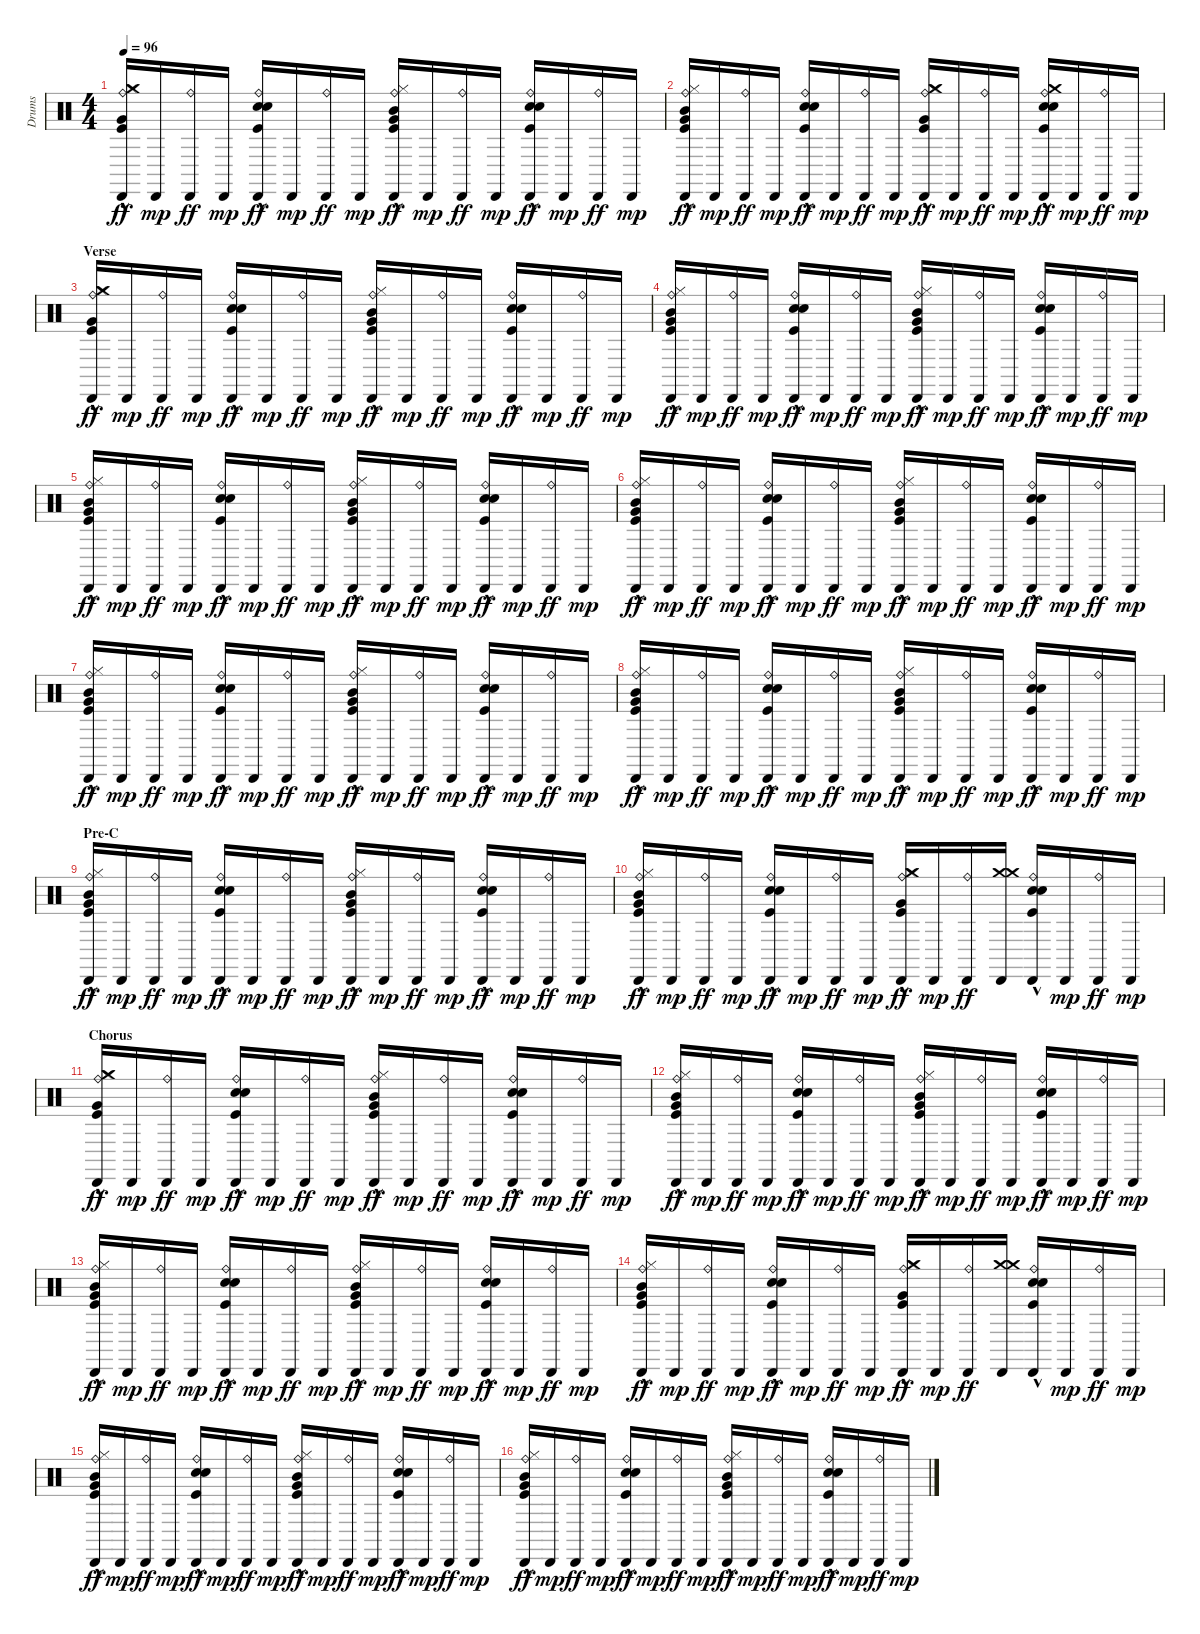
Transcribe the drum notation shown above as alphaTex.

\track ("Drums" "Drums") {instrument percussion}
\staff {score}
\articulation defaults
\ts (4 4)
\tempo 96
\clef neutral
\ks c
("Crash medium (hit)"{hac} "Kick (hit)"{hac} "Hi-Hat (closed)"{hac} "Very Low Tom (hit)"{hac} "Cabasa (hit)" "Ride (bell)").16{dy ff} "Cabasa (hit)".16{dy mp} ("Cabasa (hit)" "Ride (bell)").16{dy ff} "Cabasa (hit)".16{dy mp} ("Kick (hit)"{hac} "Snare (hit) 2"{hac} "Electric Snare (hit)"{hac} "Cabasa (hit)" "Ride (bell)").16{dy ff} "Cabasa (hit)".16{dy mp} ("Cabasa (hit)" "Ride (bell)").16{dy ff} "Cabasa (hit)".16{dy mp} ("Kick (hit)"{hac} "Hi-Hat (closed)"{hac} "Very Low Tom (hit)"{hac} "Cabasa (hit)" "Ride (bell)" "Mid Tom (hit)"{hac}).16{dy ff} "Cabasa (hit)".16{dy mp} ("Cabasa (hit)" "Ride (bell)").16{dy ff} "Cabasa (hit)".16{dy mp} ("Kick (hit)"{hac} "Snare (hit) 2"{hac} "Electric Snare (hit)"{hac} "Cabasa (hit)" "Ride (bell)").16{dy ff} "Cabasa (hit)".16{dy mp} ("Cabasa (hit)" "Ride (bell)").16{dy ff} "Cabasa (hit)".16{dy mp} |
("Kick (hit)"{hac} "Hi-Hat (closed)"{hac} "Very Low Tom (hit)"{hac} "Cabasa (hit)" "Ride (bell)" "Mid Tom (hit)").16{dy ff} "Cabasa (hit)".16{dy mp} ("Cabasa (hit)" "Ride (bell)").16{dy ff} "Cabasa (hit)".16{dy mp} ("Kick (hit)"{hac} "Snare (hit) 2"{hac} "Electric Snare (hit)"{hac} "Cabasa (hit)" "Ride (bell)").16{dy ff} "Cabasa (hit)".16{dy mp} ("Cabasa (hit)" "Ride (bell)").16{dy ff} "Cabasa (hit)".16{dy mp} ("Crash medium (hit)"{hac} "Kick (hit)"{hac} "Hi-Hat (closed)"{hac} "Very Low Tom (hit)"{hac} "Cabasa (hit)" "Ride (bell)").16{dy ff} "Cabasa (hit)".16{dy mp} ("Cabasa (hit)" "Ride (bell)").16{dy ff} "Cabasa (hit)".16{dy mp} ("Crash medium (hit)"{hac} "Kick (hit)"{hac} "Snare (hit) 2"{hac} "Electric Snare (hit)"{hac} "Cabasa (hit)" "Ride (bell)").16{dy ff} "Cabasa (hit)".16{dy mp} ("Cabasa (hit)" "Ride (bell)").16{dy ff} "Cabasa (hit)".16{dy mp} |
\section ("" "Verse")
("Crash medium (hit)"{hac} "Kick (hit)"{hac} "Hi-Hat (closed)"{hac} "Very Low Tom (hit)"{hac} "Cabasa (hit)" "Ride (bell)").16{dy ff} "Cabasa (hit)".16{dy mp} ("Cabasa (hit)" "Ride (bell)").16{dy ff} "Cabasa (hit)".16{dy mp} ("Kick (hit)"{hac} "Snare (hit) 2"{hac} "Electric Snare (hit)"{hac} "Cabasa (hit)" "Ride (bell)").16{dy ff} "Cabasa (hit)".16{dy mp} ("Cabasa (hit)" "Ride (bell)").16{dy ff} "Cabasa (hit)".16{dy mp} ("Kick (hit)"{hac} "Hi-Hat (closed)"{hac} "Very Low Tom (hit)"{hac} "Cabasa (hit)" "Ride (bell)" "Mid Tom (hit)"{hac}).16{dy ff} "Cabasa (hit)".16{dy mp} ("Cabasa (hit)" "Ride (bell)").16{dy ff} "Cabasa (hit)".16{dy mp} ("Kick (hit)"{hac} "Snare (hit) 2"{hac} "Electric Snare (hit)"{hac} "Cabasa (hit)" "Ride (bell)").16{dy ff} "Cabasa (hit)".16{dy mp} ("Cabasa (hit)" "Ride (bell)").16{dy ff} "Cabasa (hit)".16{dy mp} |
("Kick (hit)"{hac} "Hi-Hat (closed)"{hac} "Very Low Tom (hit)"{hac} "Cabasa (hit)" "Ride (bell)" "Mid Tom (hit)"{hac}).16{dy ff} "Cabasa (hit)".16{dy mp} ("Cabasa (hit)" "Ride (bell)").16{dy ff} "Cabasa (hit)".16{dy mp} ("Kick (hit)"{hac} "Snare (hit) 2"{hac} "Electric Snare (hit)"{hac} "Cabasa (hit)" "Ride (bell)").16{dy ff} "Cabasa (hit)".16{dy mp} ("Cabasa (hit)" "Ride (bell)").16{dy ff} "Cabasa (hit)".16{dy mp} ("Kick (hit)"{hac} "Hi-Hat (closed)"{hac} "Very Low Tom (hit)"{hac} "Cabasa (hit)" "Ride (bell)" "Mid Tom (hit)"{hac}).16{dy ff} "Cabasa (hit)".16{dy mp} ("Cabasa (hit)" "Ride (bell)").16{dy ff} "Cabasa (hit)".16{dy mp} ("Kick (hit)"{hac} "Snare (hit) 2"{hac} "Electric Snare (hit)"{hac} "Cabasa (hit)" "Ride (bell)").16{dy ff} "Cabasa (hit)".16{dy mp} ("Cabasa (hit)" "Ride (bell)").16{dy ff} "Cabasa (hit)".16{dy mp} |
("Kick (hit)"{hac} "Hi-Hat (closed)"{hac} "Very Low Tom (hit)"{hac} "Cabasa (hit)" "Ride (bell)" "Mid Tom (hit)"{hac}).16{dy ff} "Cabasa (hit)".16{dy mp} ("Cabasa (hit)" "Ride (bell)").16{dy ff} "Cabasa (hit)".16{dy mp} ("Kick (hit)"{hac} "Snare (hit) 2"{hac} "Electric Snare (hit)"{hac} "Cabasa (hit)" "Ride (bell)").16{dy ff} "Cabasa (hit)".16{dy mp} ("Cabasa (hit)" "Ride (bell)").16{dy ff} "Cabasa (hit)".16{dy mp} ("Kick (hit)"{hac} "Hi-Hat (closed)"{hac} "Very Low Tom (hit)"{hac} "Cabasa (hit)" "Ride (bell)" "Mid Tom (hit)"{hac}).16{dy ff} "Cabasa (hit)".16{dy mp} ("Cabasa (hit)" "Ride (bell)").16{dy ff} "Cabasa (hit)".16{dy mp} ("Kick (hit)"{hac} "Snare (hit) 2"{hac} "Electric Snare (hit)"{hac} "Cabasa (hit)" "Ride (bell)").16{dy ff} "Cabasa (hit)".16{dy mp} ("Cabasa (hit)" "Ride (bell)").16{dy ff} "Cabasa (hit)".16{dy mp} |
("Kick (hit)"{hac} "Hi-Hat (closed)"{hac} "Very Low Tom (hit)"{hac} "Cabasa (hit)" "Ride (bell)" "Mid Tom (hit)"{hac}).16{dy ff} "Cabasa (hit)".16{dy mp} ("Cabasa (hit)" "Ride (bell)").16{dy ff} "Cabasa (hit)".16{dy mp} ("Kick (hit)"{hac} "Snare (hit) 2"{hac} "Electric Snare (hit)"{hac} "Cabasa (hit)" "Ride (bell)").16{dy ff} "Cabasa (hit)".16{dy mp} ("Cabasa (hit)" "Ride (bell)").16{dy ff} "Cabasa (hit)".16{dy mp} ("Kick (hit)"{hac} "Hi-Hat (closed)"{hac} "Very Low Tom (hit)"{hac} "Cabasa (hit)" "Ride (bell)" "Mid Tom (hit)"{hac}).16{dy ff} "Cabasa (hit)".16{dy mp} ("Cabasa (hit)" "Ride (bell)").16{dy ff} "Cabasa (hit)".16{dy mp} ("Kick (hit)"{hac} "Snare (hit) 2"{hac} "Electric Snare (hit)"{hac} "Cabasa (hit)" "Ride (bell)").16{dy ff} "Cabasa (hit)".16{dy mp} ("Cabasa (hit)" "Ride (bell)").16{dy ff} "Cabasa (hit)".16{dy mp} |
("Kick (hit)"{hac} "Hi-Hat (closed)"{hac} "Very Low Tom (hit)"{hac} "Cabasa (hit)" "Ride (bell)" "Mid Tom (hit)"{hac}).16{dy ff} "Cabasa (hit)".16{dy mp} ("Cabasa (hit)" "Ride (bell)").16{dy ff} "Cabasa (hit)".16{dy mp} ("Kick (hit)"{hac} "Snare (hit) 2"{hac} "Electric Snare (hit)"{hac} "Cabasa (hit)" "Ride (bell)").16{dy ff} "Cabasa (hit)".16{dy mp} ("Cabasa (hit)" "Ride (bell)").16{dy ff} "Cabasa (hit)".16{dy mp} ("Kick (hit)"{hac} "Hi-Hat (closed)"{hac} "Very Low Tom (hit)"{hac} "Cabasa (hit)" "Ride (bell)" "Mid Tom (hit)"{hac}).16{dy ff} "Cabasa (hit)".16{dy mp} ("Cabasa (hit)" "Ride (bell)").16{dy ff} "Cabasa (hit)".16{dy mp} ("Kick (hit)"{hac} "Snare (hit) 2"{hac} "Electric Snare (hit)"{hac} "Cabasa (hit)" "Ride (bell)").16{dy ff} "Cabasa (hit)".16{dy mp} ("Cabasa (hit)" "Ride (bell)").16{dy ff} "Cabasa (hit)".16{dy mp} |
("Kick (hit)"{hac} "Hi-Hat (closed)"{hac} "Very Low Tom (hit)"{hac} "Cabasa (hit)" "Ride (bell)" "Mid Tom (hit)"{hac}).16{dy ff} "Cabasa (hit)".16{dy mp} ("Cabasa (hit)" "Ride (bell)").16{dy ff} "Cabasa (hit)".16{dy mp} ("Kick (hit)"{hac} "Snare (hit) 2"{hac} "Electric Snare (hit)"{hac} "Cabasa (hit)" "Ride (bell)").16{dy ff} "Cabasa (hit)".16{dy mp} ("Cabasa (hit)" "Ride (bell)").16{dy ff} "Cabasa (hit)".16{dy mp} ("Kick (hit)"{hac} "Hi-Hat (closed)"{hac} "Very Low Tom (hit)"{hac} "Cabasa (hit)" "Ride (bell)" "Mid Tom (hit)"{hac}).16{dy ff} "Cabasa (hit)".16{dy mp} ("Cabasa (hit)" "Ride (bell)").16{dy ff} "Cabasa (hit)".16{dy mp} ("Kick (hit)"{hac} "Snare (hit) 2"{hac} "Electric Snare (hit)"{hac} "Cabasa (hit)" "Ride (bell)").16{dy ff} "Cabasa (hit)".16{dy mp} ("Cabasa (hit)" "Ride (bell)").16{dy ff} "Cabasa (hit)".16{dy mp} |
\section ("" "Pre-C")
("Kick (hit)"{hac} "Hi-Hat (closed)"{hac} "Very Low Tom (hit)"{hac} "Cabasa (hit)" "Ride (bell)" "Mid Tom (hit)"{hac}).16{dy ff} "Cabasa (hit)".16{dy mp} ("Cabasa (hit)" "Ride (bell)").16{dy ff} "Cabasa (hit)".16{dy mp} ("Kick (hit)"{hac} "Snare (hit) 2"{hac} "Electric Snare (hit)"{hac} "Cabasa (hit)" "Ride (bell)").16{dy ff} "Cabasa (hit)".16{dy mp} ("Cabasa (hit)" "Ride (bell)").16{dy ff} "Cabasa (hit)".16{dy mp} ("Kick (hit)"{hac} "Hi-Hat (closed)"{hac} "Very Low Tom (hit)"{hac} "Cabasa (hit)" "Ride (bell)" "Mid Tom (hit)"{hac}).16{dy ff} "Cabasa (hit)".16{dy mp} ("Cabasa (hit)" "Ride (bell)").16{dy ff} "Cabasa (hit)".16{dy mp} ("Kick (hit)"{hac} "Snare (hit) 2"{hac} "Electric Snare (hit)"{hac} "Cabasa (hit)" "Ride (bell)").16{dy ff} "Cabasa (hit)".16{dy mp} ("Cabasa (hit)" "Ride (bell)").16{dy ff} "Cabasa (hit)".16{dy mp} |
("Kick (hit)"{hac} "Hi-Hat (closed)"{hac} "Very Low Tom (hit)"{hac} "Cabasa (hit)" "Ride (bell)" "Mid Tom (hit)").16{dy ff} "Cabasa (hit)".16{dy mp} ("Cabasa (hit)" "Ride (bell)").16{dy ff} "Cabasa (hit)".16{dy mp} ("Kick (hit)"{hac} "Snare (hit) 2"{hac} "Electric Snare (hit)"{hac} "Cabasa (hit)" "Ride (bell)").16{dy ff} "Cabasa (hit)".16{dy mp} ("Cabasa (hit)" "Ride (bell)").16{dy ff} "Cabasa (hit)".16{dy mp} ("Crash medium (hit)"{hac} "Kick (hit)"{hac} "Hi-Hat (closed)"{hac} "Very Low Tom (hit)"{hac} "Cabasa (hit)" "Ride (bell)").16{dy ff} "Cabasa (hit)".16{dy mp} ("Cabasa (hit)" "Ride (bell)").16{dy ff} ("Crash medium (hit)" "Cabasa (hit)" "Crash medium (hit)").16 ("Kick (hit)"{hac} "Snare (hit) 2"{hac} "Electric Snare (hit)"{hac} "Cabasa (hit)" "Ride (bell)").16 "Cabasa (hit)".16{dy mp} ("Cabasa (hit)" "Ride (bell)").16{dy ff} "Cabasa (hit)".16{dy mp} |
\section ("" "Chorus")
("Crash medium (hit)"{hac} "Kick (hit)"{hac} "Hi-Hat (closed)"{hac} "Very Low Tom (hit)"{hac} "Cabasa (hit)" "Ride (bell)").16{dy ff} "Cabasa (hit)".16{dy mp} ("Cabasa (hit)" "Ride (bell)").16{dy ff} "Cabasa (hit)".16{dy mp} ("Kick (hit)"{hac} "Snare (hit) 2"{hac} "Electric Snare (hit)"{hac} "Cabasa (hit)" "Ride (bell)").16{dy ff} "Cabasa (hit)".16{dy mp} ("Cabasa (hit)" "Ride (bell)").16{dy ff} "Cabasa (hit)".16{dy mp} ("Kick (hit)"{hac} "Hi-Hat (closed)"{hac} "Very Low Tom (hit)"{hac} "Cabasa (hit)" "Ride (bell)" "Mid Tom (hit)"{hac}).16{dy ff} "Cabasa (hit)".16{dy mp} ("Cabasa (hit)" "Ride (bell)").16{dy ff} "Cabasa (hit)".16{dy mp} ("Kick (hit)"{hac} "Snare (hit) 2"{hac} "Electric Snare (hit)"{hac} "Cabasa (hit)" "Ride (bell)").16{dy ff} "Cabasa (hit)".16{dy mp} ("Cabasa (hit)" "Ride (bell)").16{dy ff} "Cabasa (hit)".16{dy mp} |
("Kick (hit)"{hac} "Hi-Hat (closed)"{hac} "Very Low Tom (hit)"{hac} "Cabasa (hit)" "Ride (bell)" "Mid Tom (hit)"{hac}).16{dy ff} "Cabasa (hit)".16{dy mp} ("Cabasa (hit)" "Ride (bell)").16{dy ff} "Cabasa (hit)".16{dy mp} ("Kick (hit)"{hac} "Snare (hit) 2"{hac} "Electric Snare (hit)"{hac} "Cabasa (hit)" "Ride (bell)").16{dy ff} "Cabasa (hit)".16{dy mp} ("Cabasa (hit)" "Ride (bell)").16{dy ff} "Cabasa (hit)".16{dy mp} ("Kick (hit)"{hac} "Hi-Hat (closed)"{hac} "Very Low Tom (hit)"{hac} "Cabasa (hit)" "Ride (bell)" "Mid Tom (hit)"{hac}).16{dy ff} "Cabasa (hit)".16{dy mp} ("Cabasa (hit)" "Ride (bell)").16{dy ff} "Cabasa (hit)".16{dy mp} ("Kick (hit)"{hac} "Snare (hit) 2"{hac} "Electric Snare (hit)"{hac} "Cabasa (hit)" "Ride (bell)").16{dy ff} "Cabasa (hit)".16{dy mp} ("Cabasa (hit)" "Ride (bell)").16{dy ff} "Cabasa (hit)".16{dy mp} |
("Kick (hit)"{hac} "Hi-Hat (closed)"{hac} "Very Low Tom (hit)"{hac} "Cabasa (hit)" "Ride (bell)" "Mid Tom (hit)"{hac}).16{dy ff} "Cabasa (hit)".16{dy mp} ("Cabasa (hit)" "Ride (bell)").16{dy ff} "Cabasa (hit)".16{dy mp} ("Kick (hit)"{hac} "Snare (hit) 2"{hac} "Electric Snare (hit)"{hac} "Cabasa (hit)" "Ride (bell)").16{dy ff} "Cabasa (hit)".16{dy mp} ("Cabasa (hit)" "Ride (bell)").16{dy ff} "Cabasa (hit)".16{dy mp} ("Kick (hit)"{hac} "Hi-Hat (closed)"{hac} "Very Low Tom (hit)"{hac} "Cabasa (hit)" "Ride (bell)" "Mid Tom (hit)"{hac}).16{dy ff} "Cabasa (hit)".16{dy mp} ("Cabasa (hit)" "Ride (bell)").16{dy ff} "Cabasa (hit)".16{dy mp} ("Kick (hit)"{hac} "Snare (hit) 2"{hac} "Electric Snare (hit)"{hac} "Cabasa (hit)" "Ride (bell)").16{dy ff} "Cabasa (hit)".16{dy mp} ("Cabasa (hit)" "Ride (bell)").16{dy ff} "Cabasa (hit)".16{dy mp} |
("Kick (hit)"{hac} "Hi-Hat (closed)"{hac} "Very Low Tom (hit)"{hac} "Cabasa (hit)" "Ride (bell)" "Mid Tom (hit)").16{dy ff} "Cabasa (hit)".16{dy mp} ("Cabasa (hit)" "Ride (bell)").16{dy ff} "Cabasa (hit)".16{dy mp} ("Kick (hit)"{hac} "Snare (hit) 2"{hac} "Electric Snare (hit)"{hac} "Cabasa (hit)" "Ride (bell)").16{dy ff} "Cabasa (hit)".16{dy mp} ("Cabasa (hit)" "Ride (bell)").16{dy ff} "Cabasa (hit)".16{dy mp} ("Crash medium (hit)"{hac} "Kick (hit)"{hac} "Hi-Hat (closed)"{hac} "Very Low Tom (hit)"{hac} "Cabasa (hit)" "Ride (bell)").16{dy ff} "Cabasa (hit)".16{dy mp} ("Cabasa (hit)" "Ride (bell)").16{dy ff} ("Crash medium (hit)" "Cabasa (hit)" "Crash medium (hit)").16 ("Kick (hit)"{hac} "Snare (hit) 2"{hac} "Electric Snare (hit)"{hac} "Cabasa (hit)" "Ride (bell)").16 "Cabasa (hit)".16{dy mp} ("Cabasa (hit)" "Ride (bell)").16{dy ff} "Cabasa (hit)".16{dy mp} |
("Kick (hit)"{hac} "Hi-Hat (closed)"{hac} "Very Low Tom (hit)"{hac} "Cabasa (hit)" "Ride (bell)" "Mid Tom (hit)"{hac}).16{dy ff} "Cabasa (hit)".16{dy mp} ("Cabasa (hit)" "Ride (bell)").16{dy ff} "Cabasa (hit)".16{dy mp} ("Kick (hit)"{hac} "Snare (hit) 2"{hac} "Electric Snare (hit)"{hac} "Cabasa (hit)" "Ride (bell)").16{dy ff} "Cabasa (hit)".16{dy mp} ("Cabasa (hit)" "Ride (bell)").16{dy ff} "Cabasa (hit)".16{dy mp} ("Kick (hit)"{hac} "Hi-Hat (closed)"{hac} "Very Low Tom (hit)"{hac} "Cabasa (hit)" "Ride (bell)" "Mid Tom (hit)"{hac}).16{dy ff} "Cabasa (hit)".16{dy mp} ("Cabasa (hit)" "Ride (bell)").16{dy ff} "Cabasa (hit)".16{dy mp} ("Kick (hit)"{hac} "Snare (hit) 2"{hac} "Electric Snare (hit)"{hac} "Cabasa (hit)" "Ride (bell)").16{dy ff} "Cabasa (hit)".16{dy mp} ("Cabasa (hit)" "Ride (bell)").16{dy ff} "Cabasa (hit)".16{dy mp} |
("Kick (hit)"{hac} "Hi-Hat (closed)"{hac} "Very Low Tom (hit)"{hac} "Cabasa (hit)" "Ride (bell)" "Mid Tom (hit)"{hac}).16{dy ff} "Cabasa (hit)".16{dy mp} ("Cabasa (hit)" "Ride (bell)").16{dy ff} "Cabasa (hit)".16{dy mp} ("Kick (hit)"{hac} "Snare (hit) 2"{hac} "Electric Snare (hit)"{hac} "Cabasa (hit)" "Ride (bell)").16{dy ff} "Cabasa (hit)".16{dy mp} ("Cabasa (hit)" "Ride (bell)").16{dy ff} "Cabasa (hit)".16{dy mp} ("Kick (hit)"{hac} "Hi-Hat (closed)"{hac} "Very Low Tom (hit)"{hac} "Cabasa (hit)" "Ride (bell)" "Mid Tom (hit)"{hac}).16{dy ff} "Cabasa (hit)".16{dy mp} ("Cabasa (hit)" "Ride (bell)").16{dy ff} "Cabasa (hit)".16{dy mp} ("Kick (hit)"{hac} "Snare (hit) 2"{hac} "Electric Snare (hit)"{hac} "Cabasa (hit)" "Ride (bell)").16{dy ff} "Cabasa (hit)".16{dy mp} ("Cabasa (hit)" "Ride (bell)").16{dy ff} "Cabasa (hit)".16{dy mp}
